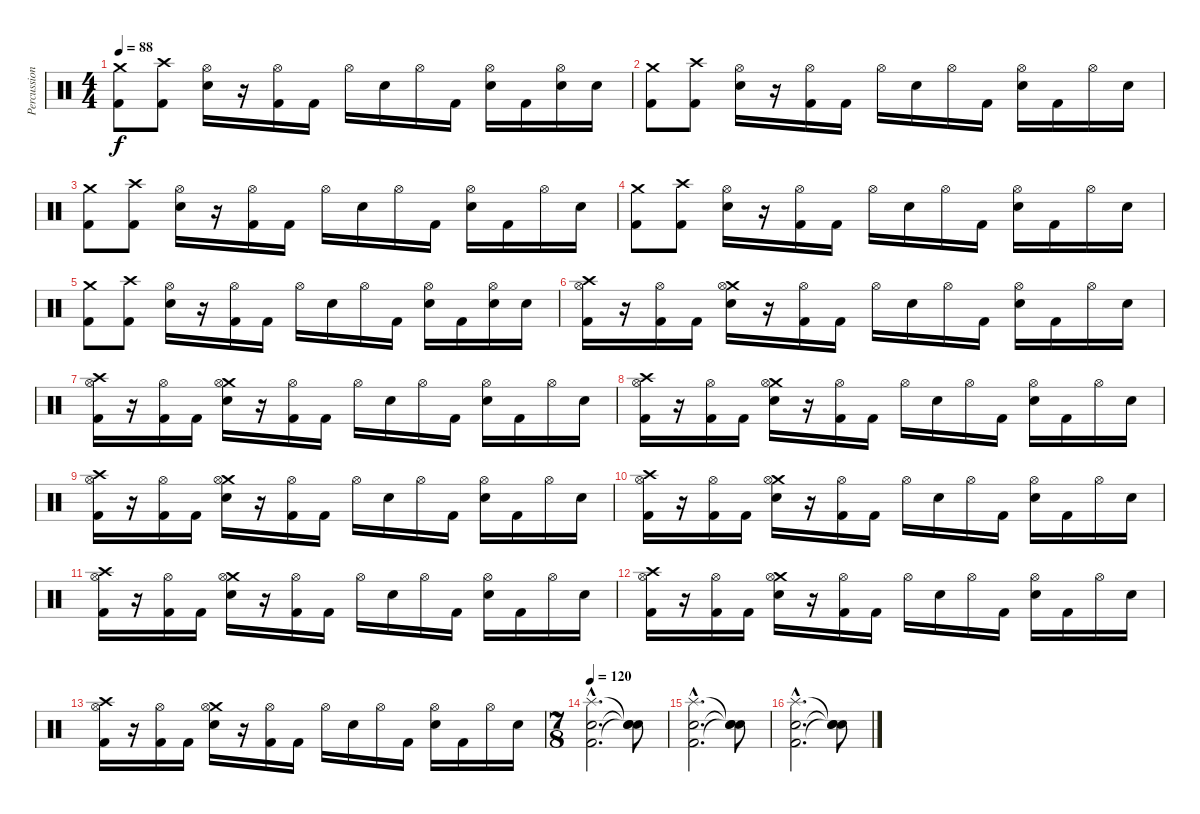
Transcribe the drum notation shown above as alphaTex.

\track ("Percussion" "Percussion") {instrument percussion}
\staff {score}
\articulation defaults
\ts (4 4)
\tempo 88
\clef neutral
\ks c
("Crash medium (hit)" "Kick (hit) 2").8{dy f} ("Crash high (hit)" "Kick (hit) 2").8 ("Hi-Hat (open)" "Electric Snare (hit)").16 r.16 ("Hi-Hat (open)" "Kick (hit) 2").16 "Kick (hit) 2".16 "Hi-Hat (open)".16 "Electric Snare (hit)".16 "Hi-Hat (open)".16 "Kick (hit) 2".16 ("Hi-Hat (open)" "Electric Snare (hit)").16 "Kick (hit) 2".16 ("Hi-Hat (open)" "Electric Snare (hit)").16 "Electric Snare (hit)".16 |
("Crash medium (hit)" "Kick (hit) 2").8 ("Crash high (hit)" "Kick (hit) 2").8 ("Hi-Hat (open)" "Electric Snare (hit)").16 r.16 ("Hi-Hat (open)" "Kick (hit) 2").16 "Kick (hit) 2".16 "Hi-Hat (open)".16 "Electric Snare (hit)".16 "Hi-Hat (open)".16 "Kick (hit) 2".16 ("Hi-Hat (open)" "Electric Snare (hit)").16 "Kick (hit) 2".16 "Hi-Hat (open)".16 "Electric Snare (hit)".16 |
("Crash medium (hit)" "Kick (hit) 2").8 ("Crash high (hit)" "Kick (hit) 2").8 ("Hi-Hat (open)" "Electric Snare (hit)").16 r.16 ("Hi-Hat (open)" "Kick (hit) 2").16 "Kick (hit) 2".16 "Hi-Hat (open)".16 "Electric Snare (hit)".16 "Hi-Hat (open)".16 "Kick (hit) 2".16 ("Hi-Hat (open)" "Electric Snare (hit)").16 "Kick (hit) 2".16 "Hi-Hat (open)".16 "Electric Snare (hit)".16 |
("Crash medium (hit)" "Kick (hit) 2").8 ("Crash high (hit)" "Kick (hit) 2").8 ("Hi-Hat (open)" "Electric Snare (hit)").16 r.16 ("Hi-Hat (open)" "Kick (hit) 2").16 "Kick (hit) 2".16 "Hi-Hat (open)".16 "Electric Snare (hit)".16 "Hi-Hat (open)".16 "Kick (hit) 2".16 ("Hi-Hat (open)" "Electric Snare (hit)").16 "Kick (hit) 2".16 "Hi-Hat (open)".16 "Electric Snare (hit)".16 |
("Crash medium (hit)" "Kick (hit) 2").8 ("Crash high (hit)" "Kick (hit) 2").8 ("Hi-Hat (open)" "Electric Snare (hit)").16 r.16 ("Hi-Hat (open)" "Kick (hit) 2").16 "Kick (hit) 2".16 "Hi-Hat (open)".16 "Electric Snare (hit)".16 "Hi-Hat (open)".16 "Kick (hit) 2".16 ("Hi-Hat (open)" "Electric Snare (hit)").16 "Kick (hit) 2".16 ("Hi-Hat (open)" "Electric Snare (hit)").16 "Electric Snare (hit)".16 |
("Crash high (hit)" "Hi-Hat (open)" "Kick (hit) 2").16 r.16 ("Hi-Hat (open)" "Kick (hit) 2").16 "Kick (hit) 2".16 ("Crash medium (hit)" "Hi-Hat (open)" "Electric Snare (hit)").16 r.16 ("Hi-Hat (open)" "Kick (hit) 2").16 "Kick (hit) 2".16 "Hi-Hat (open)".16 "Electric Snare (hit)".16 "Hi-Hat (open)".16 "Kick (hit) 2".16 ("Hi-Hat (open)" "Electric Snare (hit)").16 "Kick (hit) 2".16 "Hi-Hat (open)".16 "Electric Snare (hit)".16 |
("Crash high (hit)" "Hi-Hat (open)" "Kick (hit) 2").16 r.16 ("Hi-Hat (open)" "Kick (hit) 2").16 "Kick (hit) 2".16 ("Crash medium (hit)" "Hi-Hat (open)" "Electric Snare (hit)").16 r.16 ("Hi-Hat (open)" "Kick (hit) 2").16 "Kick (hit) 2".16 "Hi-Hat (open)".16 "Electric Snare (hit)".16 "Hi-Hat (open)".16 "Kick (hit) 2".16 ("Hi-Hat (open)" "Electric Snare (hit)").16 "Kick (hit) 2".16 "Hi-Hat (open)".16 "Electric Snare (hit)".16 |
("Crash high (hit)" "Hi-Hat (open)" "Kick (hit) 2").16 r.16 ("Hi-Hat (open)" "Kick (hit) 2").16 "Kick (hit) 2".16 ("Crash medium (hit)" "Hi-Hat (open)" "Electric Snare (hit)").16 r.16 ("Hi-Hat (open)" "Kick (hit) 2").16 "Kick (hit) 2".16 "Hi-Hat (open)".16 "Electric Snare (hit)".16 "Hi-Hat (open)".16 "Kick (hit) 2".16 ("Hi-Hat (open)" "Electric Snare (hit)").16 "Kick (hit) 2".16 "Hi-Hat (open)".16 "Electric Snare (hit)".16 |
("Crash high (hit)" "Hi-Hat (open)" "Kick (hit) 2").16 r.16 ("Hi-Hat (open)" "Kick (hit) 2").16 "Kick (hit) 2".16 ("Crash medium (hit)" "Hi-Hat (open)" "Electric Snare (hit)").16 r.16 ("Hi-Hat (open)" "Kick (hit) 2").16 "Kick (hit) 2".16 "Hi-Hat (open)".16 "Electric Snare (hit)".16 "Hi-Hat (open)".16 "Kick (hit) 2".16 ("Hi-Hat (open)" "Electric Snare (hit)").16 "Kick (hit) 2".16 "Hi-Hat (open)".16 "Electric Snare (hit)".16 |
("Crash high (hit)" "Hi-Hat (open)" "Kick (hit) 2").16 r.16 ("Hi-Hat (open)" "Kick (hit) 2").16 "Kick (hit) 2".16 ("Crash medium (hit)" "Hi-Hat (open)" "Electric Snare (hit)").16 r.16 ("Hi-Hat (open)" "Kick (hit) 2").16 "Kick (hit) 2".16 "Hi-Hat (open)".16 "Electric Snare (hit)".16 "Hi-Hat (open)".16 "Kick (hit) 2".16 ("Hi-Hat (open)" "Electric Snare (hit)").16 "Kick (hit) 2".16 "Hi-Hat (open)".16 "Electric Snare (hit)".16 |
("Crash high (hit)" "Hi-Hat (open)" "Kick (hit) 2").16 r.16 ("Hi-Hat (open)" "Kick (hit) 2").16 "Kick (hit) 2".16 ("Crash medium (hit)" "Hi-Hat (open)" "Electric Snare (hit)").16 r.16 ("Hi-Hat (open)" "Kick (hit) 2").16 "Kick (hit) 2".16 "Hi-Hat (open)".16 "Electric Snare (hit)".16 "Hi-Hat (open)".16 "Kick (hit) 2".16 ("Hi-Hat (open)" "Electric Snare (hit)").16 "Kick (hit) 2".16 "Hi-Hat (open)".16 "Electric Snare (hit)".16 |
("Crash high (hit)" "Hi-Hat (open)" "Kick (hit) 2").16 r.16 ("Hi-Hat (open)" "Kick (hit) 2").16 "Kick (hit) 2".16 ("Crash medium (hit)" "Hi-Hat (open)" "Electric Snare (hit)").16 r.16 ("Hi-Hat (open)" "Kick (hit) 2").16 "Kick (hit) 2".16 "Hi-Hat (open)".16 "Electric Snare (hit)".16 "Hi-Hat (open)".16 "Kick (hit) 2".16 ("Hi-Hat (open)" "Electric Snare (hit)").16 "Kick (hit) 2".16 "Hi-Hat (open)".16 "Electric Snare (hit)".16 |
("Crash high (hit)" "Hi-Hat (open)" "Kick (hit) 2").16 r.16 ("Hi-Hat (open)" "Kick (hit) 2").16 "Kick (hit) 2".16 ("Crash medium (hit)" "Hi-Hat (open)" "Electric Snare (hit)").16 r.16 ("Hi-Hat (open)" "Kick (hit) 2").16 "Kick (hit) 2".16 "Hi-Hat (open)".16 "Electric Snare (hit)".16 "Hi-Hat (open)".16 "Kick (hit) 2".16 ("Hi-Hat (open)" "Electric Snare (hit)").16 "Kick (hit) 2".16 "Hi-Hat (open)".16 "Electric Snare (hit)".16 |
\ts (7 8)
\tempo 120
("Splash (hit)"{hac} "Electric Snare (hit)"{hac} "Kick (hit) 2"{hac}).2{d} ("Snare (hit)"{t} "Snare (hit)"{t} "Snare (hit)"{t}).8 |
("Splash (hit)"{hac} "Electric Snare (hit)"{hac} "Kick (hit) 2"{hac}).2{d} ("Snare (hit)"{t} "Snare (hit)"{t} "Snare (hit)"{t}).8 |
("Splash (hit)"{hac} "Electric Snare (hit)"{hac} "Kick (hit) 2"{hac}).2{d} ("Snare (hit)"{t} "Snare (hit)"{t} "Snare (hit)"{t}).8
